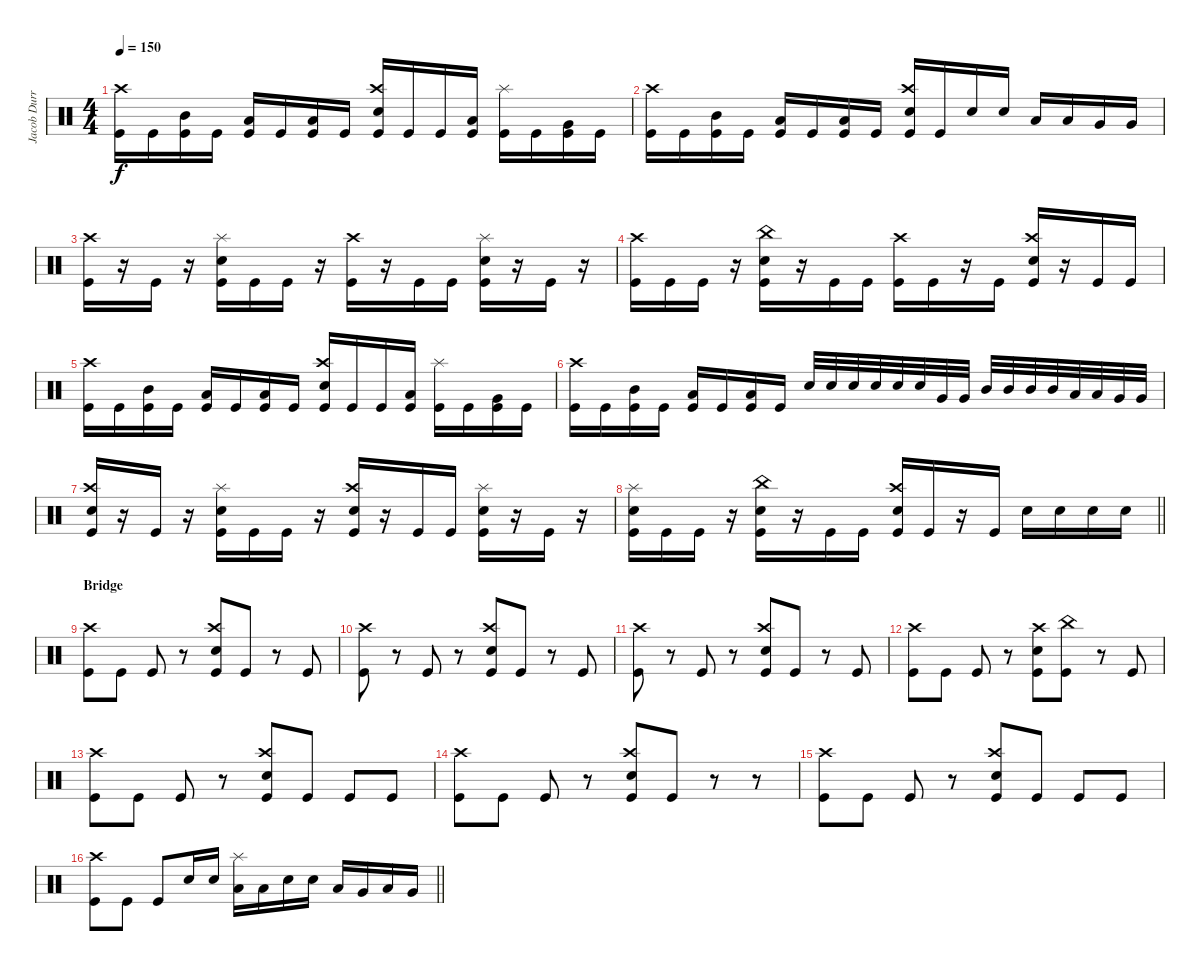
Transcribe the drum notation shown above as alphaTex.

\track ("Jacob Durret" "Jacob Durr") {instrument percussion}
\staff {score}
\articulation defaults
\ts (4 4)
\tempo 150
\clef neutral
\ks c
("Kick (hit)" "Crash high (hit)").16{dy f} "Kick (hit)".16 ("Kick (hit)" "Mid Tom (hit)").16 "Kick (hit)".16 ("Kick (hit)" "Low Tom (hit)").16 "Kick (hit)".16 ("Kick (hit)" "Low Tom (hit)").16 "Kick (hit)".16 ("Kick (hit)" "Crash high (hit)" "Snare (hit) 2").16 "Kick (hit)".16 "Kick (hit)".16 ("Kick (hit)" "Low Tom (hit)").16 ("Kick (hit)" "Splash (hit)").16 "Kick (hit)".16 ("Kick (hit)" "Very Low Tom (hit)").16 "Kick (hit)".16 |
("Kick (hit)" "Crash high (hit)").16 "Kick (hit)".16 ("Kick (hit)" "Mid Tom (hit)").16 "Kick (hit)".16 ("Kick (hit)" "Low Tom (hit)").16 "Kick (hit)".16 ("Kick (hit)" "Low Tom (hit)").16 "Kick (hit)".16 ("Kick (hit)" "Crash high (hit)" "Snare (hit) 2").16 "Kick (hit)".16 "Snare (hit) 2".16 "Snare (hit) 2".16 "Low Tom (hit)".16 "Low Tom (hit)".16 "Very Low Tom (hit)".16 "Very Low Tom (hit)".16 |
("Kick (hit)" "Crash high (hit)").16 r.16 "Kick (hit)".16 r.16 ("Kick (hit)" "Splash (hit)" "Snare (hit) 2").16 "Kick (hit)".16 "Kick (hit)".16 r.16 ("Kick (hit)" "Crash high (hit)").16 r.16 "Kick (hit)".16 "Kick (hit)".16 ("Kick (hit)" "Splash (hit)" "Snare (hit) 2").16 r.16 "Kick (hit)".16 r.16 |
("Kick (hit)" "Crash high (hit)").16 "Kick (hit)".16 "Kick (hit)".16 r.16 ("Kick (hit)" "China (hit)" "Snare (hit) 2").16 r.16 "Kick (hit)".16 "Kick (hit)".16 ("Kick (hit)" "Crash high (hit)").16 "Kick (hit)".16 r.16 "Kick (hit)".16 ("Crash high (hit)" "Kick (hit)" "Snare (hit) 2").16 r.16 "Kick (hit)".16 "Kick (hit)".16 |
("Kick (hit)" "Crash high (hit)").16 "Kick (hit)".16 ("Kick (hit)" "Mid Tom (hit)").16 "Kick (hit)".16 ("Kick (hit)" "Low Tom (hit)").16 "Kick (hit)".16 ("Kick (hit)" "Low Tom (hit)").16 "Kick (hit)".16 ("Kick (hit)" "Crash high (hit)" "Snare (hit) 2").16 "Kick (hit)".16 "Kick (hit)".16 ("Kick (hit)" "Low Tom (hit)").16 ("Kick (hit)" "Splash (hit)").16 "Kick (hit)".16 ("Kick (hit)" "Very Low Tom (hit)").16 "Kick (hit)".16 |
("Kick (hit)" "Crash high (hit)").16 "Kick (hit)".16 ("Kick (hit)" "Mid Tom (hit)").16 "Kick (hit)".16 ("Kick (hit)" "Low Tom (hit)").16 "Kick (hit)".16 ("Kick (hit)" "Low Tom (hit)").16 "Kick (hit)".16 "Snare (hit) 2".32 "Snare (hit) 2".32 "Snare (hit) 2".32 "Snare (hit) 2".32 "Snare (hit) 2".32 "Snare (hit) 2".32 "Very Low Tom (hit)".32 "Very Low Tom (hit)".32 "Mid Tom (hit)".32 "Mid Tom (hit)".32 "Mid Tom (hit)".32 "Mid Tom (hit)".32 "Low Tom (hit)".32 "Low Tom (hit)".32 "Very Low Tom (hit)".32 "Very Low Tom (hit)".32 |
("Kick (hit)" "Crash high (hit)" "Snare (hit) 2").16 r.16 "Kick (hit)".16 r.16 ("Kick (hit)" "Splash (hit)" "Snare (hit) 2").16 "Kick (hit)".16 "Kick (hit)".16 r.16 ("Kick (hit)" "Crash high (hit)" "Snare (hit) 2").16 r.16 "Kick (hit)".16 "Kick (hit)".16 ("Kick (hit)" "Splash (hit)" "Snare (hit) 2").16 r.16 "Kick (hit)".16 r.16 |
\barLineRight lightlight
("Kick (hit)" "Splash (hit)" "Snare (hit) 2").16 "Kick (hit)".16 "Kick (hit)".16 r.16 ("Kick (hit)" "China (hit)" "Snare (hit) 2").16 r.16 "Kick (hit)".16 "Kick (hit)".16 ("Kick (hit)" "Crash high (hit)" "Snare (hit) 2").16 "Kick (hit)".16 r.16 "Kick (hit)".16 "Snare (hit) 2".16 "Snare (hit) 2".16 "Snare (hit) 2".16 "Snare (hit) 2".16 |
\section ("" "Bridge")
("Kick (hit)" "Crash high (hit)").8 "Kick (hit)".8 "Kick (hit)".8 r.8 ("Kick (hit)" "Crash high (hit)" "Snare (hit) 2").8 "Kick (hit)".8 r.8 "Kick (hit)".8 |
("Kick (hit)" "Crash high (hit)").8 r.8 "Kick (hit)".8 r.8 ("Kick (hit)" "Crash high (hit)" "Snare (hit) 2").8 "Kick (hit)".8 r.8 "Kick (hit)".8 |
("Kick (hit)" "Crash high (hit)").8 r.8 "Kick (hit)".8 r.8 ("Kick (hit)" "Crash high (hit)" "Snare (hit) 2").8 "Kick (hit)".8 r.8 "Kick (hit)".8 |
("Kick (hit)" "Crash high (hit)").8 "Kick (hit)".8 "Kick (hit)".8 r.8 ("Kick (hit)" "Crash high (hit)" "Snare (hit) 2").8 ("Kick (hit)" "China (hit)").8 r.8 "Kick (hit)".8 |
("Kick (hit)" "Crash high (hit)").8 "Kick (hit)".8 "Kick (hit)".8 r.8 ("Kick (hit)" "Crash high (hit)" "Snare (hit) 2").8 "Kick (hit)".8 "Kick (hit)".8 "Kick (hit)".8 |
("Kick (hit)" "Crash high (hit)").8 "Kick (hit)".8 "Kick (hit)".8 r.8 ("Kick (hit)" "Crash high (hit)" "Snare (hit) 2").8 "Kick (hit)".8 r.8 r.8 |
("Kick (hit)" "Crash high (hit)").8 "Kick (hit)".8 "Kick (hit)".8 r.8 ("Kick (hit)" "Crash high (hit)" "Snare (hit) 2").8 "Kick (hit)".8 "Kick (hit)".8 "Kick (hit)".8 |
\barLineRight lightlight
("Kick (hit)" "Crash high (hit)").8 "Kick (hit)".8 "Kick (hit)".8 "Snare (hit) 2".16 "Snare (hit) 2".16 ("Low Tom (hit)" "Splash (hit)").16 "Low Tom (hit)".16 "Snare (hit) 2".16 "Snare (hit) 2".16 "Low Tom (hit)".16 "Very Low Tom (hit)".16 "Low Tom (hit)".16 "Very Low Tom (hit)".16
